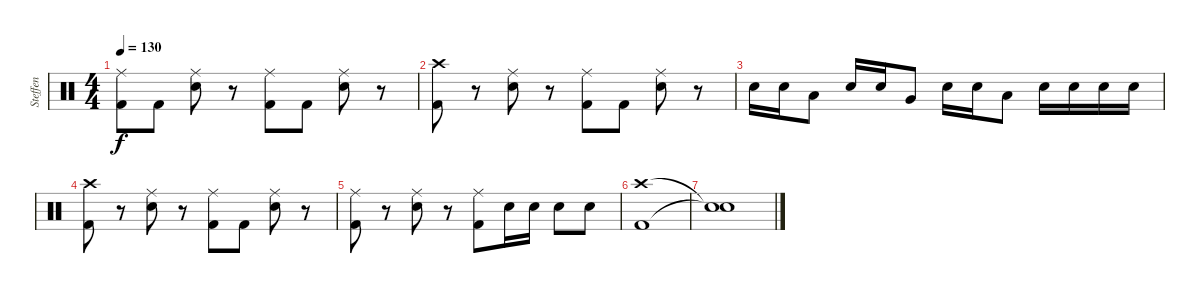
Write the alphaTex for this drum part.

\track ("Steffen" "Steffen") {instrument percussion}
\staff {score}
\articulation defaults
\ts (4 4)
\tempo 130
\clef neutral
\ks c
("Ride (middle)" "Kick (hit) 2").8{dy f} "Kick (hit) 2".8 ("Ride (middle)" "Snare (hit) 2").8 r.8 ("Ride (middle)" "Kick (hit) 2").8 "Kick (hit) 2".8 ("Ride (middle)" "Snare (hit) 2").8 r.8 |
("Crash high (hit)" "Kick (hit) 2").8 r.8 ("Ride (middle)" "Snare (hit) 2").8 r.8 ("Ride (middle)" "Kick (hit) 2").8 "Kick (hit) 2".8 ("Ride (middle)" "Snare (hit) 2").8 r.8 |
"Snare (hit) 2".16 "Snare (hit) 2".16 "Low Tom (hit)".8 "Snare (hit) 2".16 "Snare (hit) 2".16 "Very Low Tom (hit)".8 "Snare (hit) 2".16 "Snare (hit) 2".16 "Low Floor Tom (hit)".8 "Snare (hit) 2".16 "Snare (hit) 2".16 "Snare (hit) 2".16 "Snare (hit) 2".16 |
("Crash high (hit)" "Kick (hit) 2").8 r.8 ("Ride (middle)" "Snare (hit) 2").8 r.8 ("Ride (middle)" "Kick (hit) 2").8 "Kick (hit) 2".8 ("Ride (middle)" "Snare (hit) 2").8 r.8 |
("Ride (middle)" "Kick (hit) 2").8 r.8 ("Ride (middle)" "Snare (hit) 2").8 r.8 ("Ride (middle)" "Kick (hit) 2").8 "Snare (hit) 2".16 "Snare (hit) 2".16 "Snare (hit) 2".8 "Snare (hit) 2".8 |
("Crash high (hit)" "Kick (hit) 2").1 |
("Snare (hit)"{t} "Snare (hit)"{t}).1
